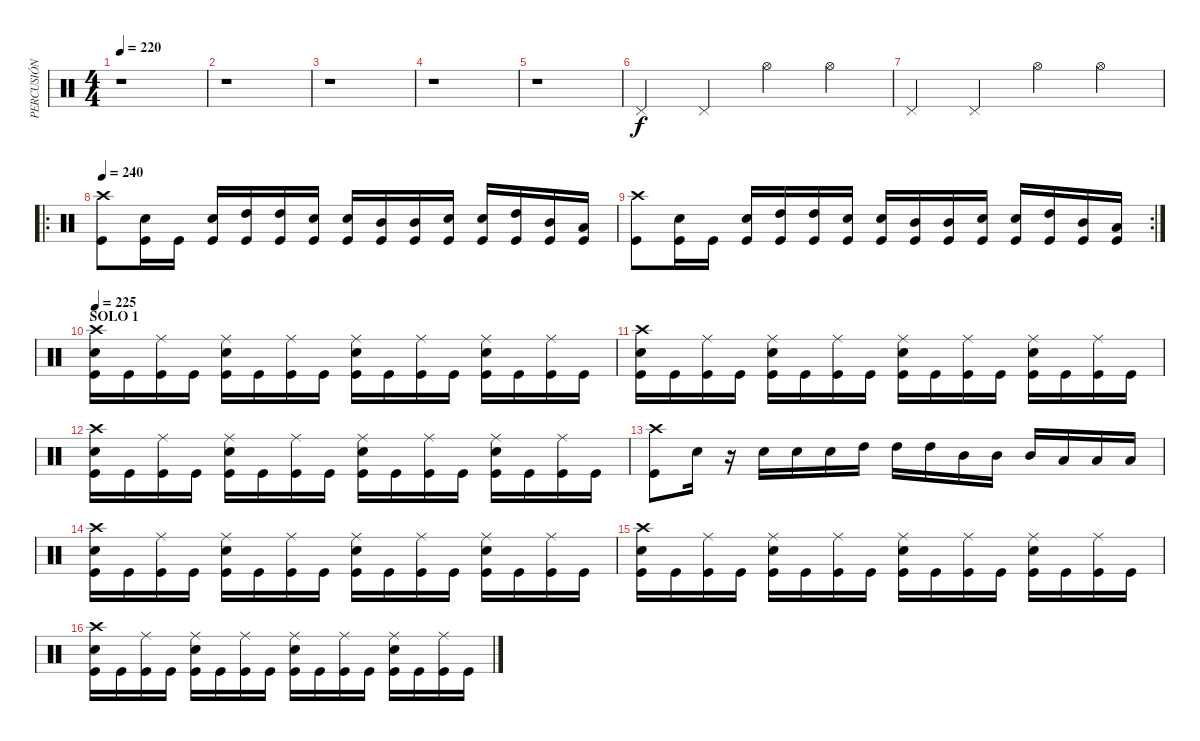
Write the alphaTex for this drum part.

\track ("PERCUSIÓN" "PERCUSIÓN") {instrument percussion}
\staff {score}
\articulation defaults
\ts (4 4)
\tempo 220
\clef neutral
\ks c
r.1{dy f} |
r.1 |
r.1 |
r.1 |
r.1 |
"Pedal Hi-Hat (hit)".4 "Pedal Hi-Hat (hit)".4 "Hi-Hat (open)".4 "Hi-Hat (open)".4 |
"Pedal Hi-Hat (hit)".4 "Pedal Hi-Hat (hit)".4 "Hi-Hat (open)".4 "Hi-Hat (open)".4 |
\ro
\tempo 240
("Crash high (hit)" "Kick (hit)").8 ("Snare (hit) 2" "Kick (hit)").16 "Kick (hit)".16 ("Snare (hit) 2" "Kick (hit)").16 ("High Tom (hit)" "Kick (hit)").16 ("High Tom (hit)" "Kick (hit)").16 ("Snare (hit) 2" "Kick (hit)").16 ("Snare (hit) 2" "Kick (hit)").16 ("Mid Tom (hit)" "Kick (hit)").16 ("Mid Tom (hit)" "Kick (hit)").16 ("Snare (hit) 2" "Kick (hit)").16 ("Snare (hit) 2" "Kick (hit)").16 ("High Tom (hit)" "Kick (hit)").16 ("Mid Tom (hit)" "Kick (hit)").16 ("Low Tom (hit)" "Kick (hit)").16 |
\rc 2
("Crash high (hit)" "Kick (hit)").8 ("Snare (hit) 2" "Kick (hit)").16 "Kick (hit)".16 ("Snare (hit) 2" "Kick (hit)").16 ("High Tom (hit)" "Kick (hit)").16 ("High Tom (hit)" "Kick (hit)").16 ("Snare (hit) 2" "Kick (hit)").16 ("Snare (hit) 2" "Kick (hit)").16 ("Mid Tom (hit)" "Kick (hit)").16 ("Mid Tom (hit)" "Kick (hit)").16 ("Snare (hit) 2" "Kick (hit)").16 ("Snare (hit) 2" "Kick (hit)").16 ("High Tom (hit)" "Kick (hit)").16 ("Mid Tom (hit)" "Kick (hit)").16 ("Low Tom (hit)" "Kick (hit)").16 |
\section ("" "SOLO 1")
\tempo 225
("Crash high (hit)" "Snare (hit) 2" "Kick (hit)").16 "Kick (hit)".16 ("Ride (middle)" "Kick (hit)").16 "Kick (hit)".16 ("Ride (middle)" "Snare (hit) 2" "Kick (hit)").16 "Kick (hit)".16 ("Ride (middle)" "Kick (hit)").16 "Kick (hit)".16 ("Ride (middle)" "Snare (hit) 2" "Kick (hit)").16 "Kick (hit)".16 ("Ride (middle)" "Kick (hit)").16 "Kick (hit)".16 ("Ride (middle)" "Snare (hit) 2" "Kick (hit)").16 "Kick (hit)".16 ("Ride (middle)" "Kick (hit)").16 "Kick (hit)".16 |
("Crash high (hit)" "Snare (hit) 2" "Kick (hit)").16 "Kick (hit)".16 ("Ride (middle)" "Kick (hit)").16 "Kick (hit)".16 ("Ride (middle)" "Snare (hit) 2" "Kick (hit)").16 "Kick (hit)".16 ("Ride (middle)" "Kick (hit)").16 "Kick (hit)".16 ("Ride (middle)" "Snare (hit) 2" "Kick (hit)").16 "Kick (hit)".16 ("Ride (middle)" "Kick (hit)").16 "Kick (hit)".16 ("Ride (middle)" "Snare (hit) 2" "Kick (hit)").16 "Kick (hit)".16 ("Ride (middle)" "Kick (hit)").16 "Kick (hit)".16 |
("Crash high (hit)" "Snare (hit) 2" "Kick (hit)").16 "Kick (hit)".16 ("Ride (middle)" "Kick (hit)").16 "Kick (hit)".16 ("Ride (middle)" "Snare (hit) 2" "Kick (hit)").16 "Kick (hit)".16 ("Ride (middle)" "Kick (hit)").16 "Kick (hit)".16 ("Ride (middle)" "Snare (hit) 2" "Kick (hit)").16 "Kick (hit)".16 ("Ride (middle)" "Kick (hit)").16 "Kick (hit)".16 ("Ride (middle)" "Snare (hit) 2" "Kick (hit)").16 "Kick (hit)".16 ("Ride (middle)" "Kick (hit)").16 "Kick (hit)".16 |
("Crash high (hit)" "Kick (hit)").8 "Snare (hit) 2".16 r.16 "Snare (hit) 2".16 "Snare (hit) 2".16 "Snare (hit) 2".16 "High Tom (hit)".16 "High Tom (hit)".16 "High Tom (hit)".16 "Mid Tom (hit)".16 "Mid Tom (hit)".16 "Mid Tom (hit)".16 "Low Tom (hit)".16 "Low Tom (hit)".16 "Low Tom (hit)".16 |
("Crash high (hit)" "Snare (hit) 2" "Kick (hit)").16 "Kick (hit)".16 ("Ride (middle)" "Kick (hit)").16 "Kick (hit)".16 ("Ride (middle)" "Snare (hit) 2" "Kick (hit)").16 "Kick (hit)".16 ("Ride (middle)" "Kick (hit)").16 "Kick (hit)".16 ("Ride (middle)" "Snare (hit) 2" "Kick (hit)").16 "Kick (hit)".16 ("Ride (middle)" "Kick (hit)").16 "Kick (hit)".16 ("Ride (middle)" "Snare (hit) 2" "Kick (hit)").16 "Kick (hit)".16 ("Ride (middle)" "Kick (hit)").16 "Kick (hit)".16 |
("Crash high (hit)" "Snare (hit) 2" "Kick (hit)").16 "Kick (hit)".16 ("Ride (middle)" "Kick (hit)").16 "Kick (hit)".16 ("Ride (middle)" "Snare (hit) 2" "Kick (hit)").16 "Kick (hit)".16 ("Ride (middle)" "Kick (hit)").16 "Kick (hit)".16 ("Ride (middle)" "Snare (hit) 2" "Kick (hit)").16 "Kick (hit)".16 ("Ride (middle)" "Kick (hit)").16 "Kick (hit)".16 ("Ride (middle)" "Snare (hit) 2" "Kick (hit)").16 "Kick (hit)".16 ("Ride (middle)" "Kick (hit)").16 "Kick (hit)".16 |
("Crash high (hit)" "Snare (hit) 2" "Kick (hit)").16 "Kick (hit)".16 ("Ride (middle)" "Kick (hit)").16 "Kick (hit)".16 ("Ride (middle)" "Snare (hit) 2" "Kick (hit)").16 "Kick (hit)".16 ("Ride (middle)" "Kick (hit)").16 "Kick (hit)".16 ("Ride (middle)" "Snare (hit) 2" "Kick (hit)").16 "Kick (hit)".16 ("Ride (middle)" "Kick (hit)").16 "Kick (hit)".16 ("Ride (middle)" "Snare (hit) 2" "Kick (hit)").16 "Kick (hit)".16 ("Ride (middle)" "Kick (hit)").16 "Kick (hit)".16
